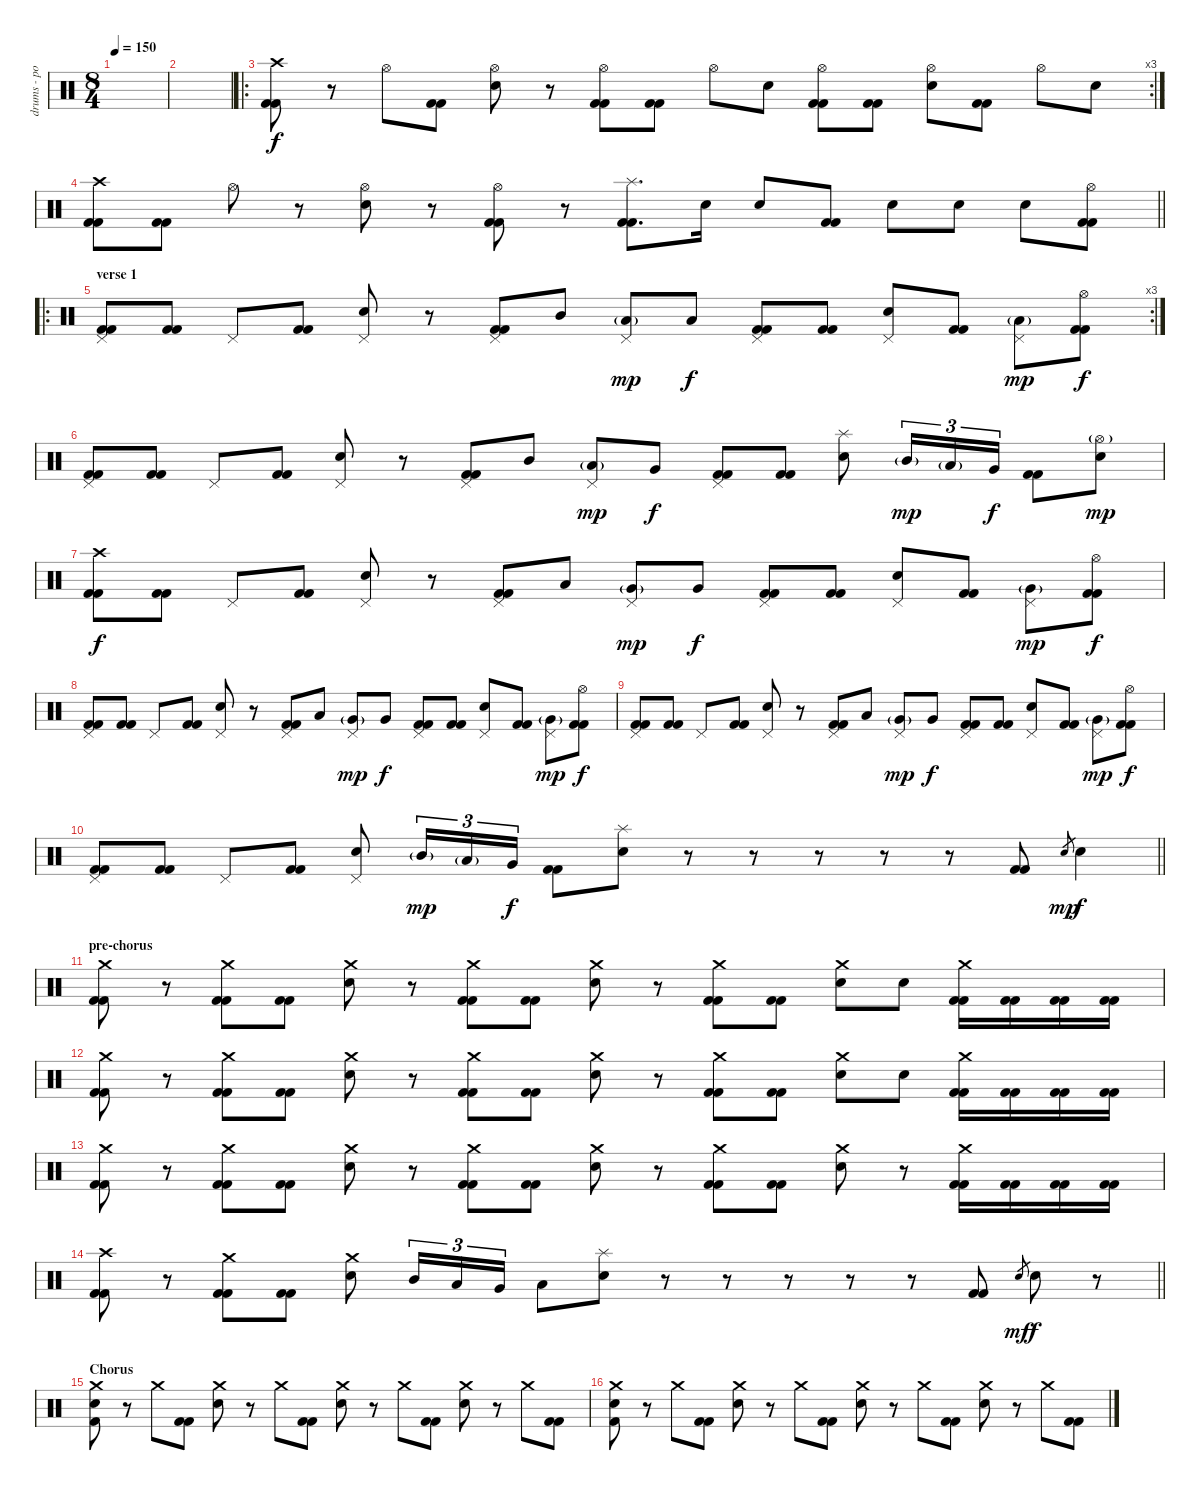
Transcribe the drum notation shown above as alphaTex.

\track ("drums - portnoy" "drums - po") {instrument percussion}
\staff {score}
\articulation defaults
\ts (8 4)
\tempo 150
\clef neutral
\ks c
|
|
\ro
\rc 3
("Crash high (hit)" "Kick (hit) 2" "Kick (hit) 2").8 r.8 "Hi-Hat (open)".8 ("Kick (hit) 2" "Kick (hit) 2").8 ("Hi-Hat (open)" "Electric Snare (hit)").8 r.8 ("Hi-Hat (open)" "Kick (hit) 2" "Kick (hit) 2").8 ("Kick (hit) 2" "Kick (hit) 2").8 "Hi-Hat (open)".8 "Electric Snare (hit)".8 ("Hi-Hat (open)" "Kick (hit) 2" "Kick (hit) 2").8 ("Kick (hit) 2" "Kick (hit) 2").8 ("Hi-Hat (open)" "Electric Snare (hit)").8 ("Kick (hit) 2" "Kick (hit) 2").8 "Hi-Hat (open)".8 "Electric Snare (hit)".8 |
\barLineRight lightlight
("Crash high (hit)" "Kick (hit) 2" "Kick (hit) 2").8 ("Kick (hit) 2" "Kick (hit) 2").8 "Hi-Hat (open)".8 r.8 ("Hi-Hat (open)" "Electric Snare (hit)").8 r.8 ("Hi-Hat (open)" "Kick (hit) 2" "Kick (hit) 2").8 r.8 ("Splash (hit)" "Kick (hit) 2" "Kick (hit) 2").8{d} "Electric Snare (hit)".16 "Electric Snare (hit)".8 ("Kick (hit) 2" "Kick (hit) 2").8 "Electric Snare (hit)".8 "Electric Snare (hit)".8 "Electric Snare (hit)".8 ("Hi-Hat (open)" "Kick (hit) 2" "Kick (hit) 2").8 |
\ro
\rc 3
\section ("" "verse 1")
("Pedal Hi-Hat (hit)" "Kick (hit) 2" "Kick (hit) 2").8 ("Kick (hit) 2" "Kick (hit) 2").8 "Pedal Hi-Hat (hit)".8 ("Kick (hit) 2" "Kick (hit) 2").8 ("Pedal Hi-Hat (hit)" "Electric Snare (hit)").8 r.8 ("Pedal Hi-Hat (hit)" "Kick (hit) 2" "Kick (hit) 2").8 "Mid Tom (hit)".8 ("Pedal Hi-Hat (hit)" "Low Tom (hit)"{g}).8{dy mp} "Low Tom (hit)".8{dy f} ("Pedal Hi-Hat (hit)" "Kick (hit) 2" "Kick (hit) 2").8 ("Kick (hit) 2" "Kick (hit) 2").8 ("Pedal Hi-Hat (hit)" "Electric Snare (hit)").8 ("Kick (hit) 2" "Kick (hit) 2").8 ("Pedal Hi-Hat (hit)" "Low Tom (hit)"{g}).8{dy mp} ("Hi-Hat (open)" "Kick (hit) 2" "Kick (hit) 2").8{dy f} |
("Pedal Hi-Hat (hit)" "Kick (hit) 2" "Kick (hit) 2").8 ("Kick (hit) 2" "Kick (hit) 2").8 "Pedal Hi-Hat (hit)".8 ("Kick (hit) 2" "Kick (hit) 2").8 ("Pedal Hi-Hat (hit)" "Electric Snare (hit)").8 r.8 ("Pedal Hi-Hat (hit)" "Kick (hit) 2" "Kick (hit) 2").8 "Mid Tom (hit)".8 ("Pedal Hi-Hat (hit)" "Low Tom (hit)"{g}).8{dy mp} "Very Low Tom (hit)".8{dy f} ("Pedal Hi-Hat (hit)" "Kick (hit) 2" "Kick (hit) 2").8 ("Kick (hit) 2" "Kick (hit) 2").8 ("Splash (hit)" "Electric Snare (hit)").8 "Mid Tom (hit)"{g}.16{tu (3 2) dy mp} "Low Tom (hit)"{g}.16{tu (3 2)} "Very Low Tom (hit)".16{tu (3 2) dy f} ("Kick (hit) 2" "Kick (hit) 2").8 ("Hi-Hat (open)"{g} "Electric Snare (hit)").8{dy mp} |
("Crash high (hit)" "Kick (hit) 2" "Kick (hit) 2").8{dy f} ("Kick (hit) 2" "Kick (hit) 2").8 "Pedal Hi-Hat (hit)".8 ("Kick (hit) 2" "Kick (hit) 2").8 ("Pedal Hi-Hat (hit)" "Electric Snare (hit)").8 r.8 ("Pedal Hi-Hat (hit)" "Kick (hit) 2" "Kick (hit) 2").8 "Low Tom (hit)".8 ("Pedal Hi-Hat (hit)" "Very Low Tom (hit)"{g}).8{dy mp} "Very Low Tom (hit)".8{dy f} ("Pedal Hi-Hat (hit)" "Kick (hit) 2" "Kick (hit) 2").8 ("Kick (hit) 2" "Kick (hit) 2").8 ("Pedal Hi-Hat (hit)" "Electric Snare (hit)").8 ("Kick (hit) 2" "Kick (hit) 2").8 ("Pedal Hi-Hat (hit)" "Very Low Tom (hit)"{g}).8{dy mp} ("Hi-Hat (open)" "Kick (hit) 2" "Kick (hit) 2").8{dy f} |
("Pedal Hi-Hat (hit)" "Kick (hit) 2" "Kick (hit) 2").8 ("Kick (hit) 2" "Kick (hit) 2").8 "Pedal Hi-Hat (hit)".8 ("Kick (hit) 2" "Kick (hit) 2").8 ("Pedal Hi-Hat (hit)" "Electric Snare (hit)").8 r.8 ("Pedal Hi-Hat (hit)" "Kick (hit) 2" "Kick (hit) 2").8 "Low Tom (hit)".8 ("Pedal Hi-Hat (hit)" "Very Low Tom (hit)"{g}).8{dy mp} "Very Low Tom (hit)".8{dy f} ("Pedal Hi-Hat (hit)" "Kick (hit) 2" "Kick (hit) 2").8 ("Kick (hit) 2" "Kick (hit) 2").8 ("Pedal Hi-Hat (hit)" "Electric Snare (hit)").8 ("Kick (hit) 2" "Kick (hit) 2").8 ("Pedal Hi-Hat (hit)" "Very Low Tom (hit)"{g}).8{dy mp} ("Hi-Hat (open)" "Kick (hit) 2" "Kick (hit) 2").8{dy f} |
("Pedal Hi-Hat (hit)" "Kick (hit) 2" "Kick (hit) 2").8 ("Kick (hit) 2" "Kick (hit) 2").8 "Pedal Hi-Hat (hit)".8 ("Kick (hit) 2" "Kick (hit) 2").8 ("Pedal Hi-Hat (hit)" "Electric Snare (hit)").8 r.8 ("Pedal Hi-Hat (hit)" "Kick (hit) 2" "Kick (hit) 2").8 "Low Tom (hit)".8 ("Pedal Hi-Hat (hit)" "Very Low Tom (hit)"{g}).8{dy mp} "Very Low Tom (hit)".8{dy f} ("Pedal Hi-Hat (hit)" "Kick (hit) 2" "Kick (hit) 2").8 ("Kick (hit) 2" "Kick (hit) 2").8 ("Pedal Hi-Hat (hit)" "Electric Snare (hit)").8 ("Kick (hit) 2" "Kick (hit) 2").8 ("Pedal Hi-Hat (hit)" "Very Low Tom (hit)"{g}).8{dy mp} ("Hi-Hat (open)" "Kick (hit) 2" "Kick (hit) 2").8{dy f} |
\barLineRight lightlight
("Pedal Hi-Hat (hit)" "Kick (hit) 2" "Kick (hit) 2").8 ("Kick (hit) 2" "Kick (hit) 2").8 "Pedal Hi-Hat (hit)".8 ("Kick (hit) 2" "Kick (hit) 2").8 ("Pedal Hi-Hat (hit)" "Electric Snare (hit)").8 "Mid Tom (hit)"{g}.16{tu (3 2) dy mp} "Low Tom (hit)"{g}.16{tu (3 2)} "Very Low Tom (hit)".16{tu (3 2) dy f} ("Kick (hit) 2" "Kick (hit) 2").8 ("Splash (hit)" "Electric Snare (hit)").8 r.8 r.8 r.8 r.8 r.8 ("Kick (hit) 2" "Kick (hit) 2").8 "Electric Snare (hit)".8{gr dy mp} "Electric Snare (hit)".4{dy f} |
\section ("" "pre-chorus")
("Crash medium (hit)" "Kick (hit) 2" "Kick (hit) 2").8 r.8 ("Crash medium (hit)" "Kick (hit) 2" "Kick (hit) 2").8 ("Kick (hit) 2" "Kick (hit) 2").8 ("Crash medium (hit)" "Electric Snare (hit)").8 r.8 ("Crash medium (hit)" "Kick (hit) 2" "Kick (hit) 2").8 ("Kick (hit) 2" "Kick (hit) 2").8 ("Crash medium (hit)" "Electric Snare (hit)").8 r.8 ("Crash medium (hit)" "Kick (hit) 2" "Kick (hit) 2").8 ("Kick (hit) 2" "Kick (hit) 2").8 ("Crash medium (hit)" "Electric Snare (hit)").8 "Electric Snare (hit)".8 ("Crash medium (hit)" "Kick (hit) 2" "Kick (hit) 2").16 ("Kick (hit) 2" "Kick (hit) 2").16 ("Kick (hit) 2" "Kick (hit) 2").16 ("Kick (hit) 2" "Kick (hit) 2").16 |
("Crash medium (hit)" "Kick (hit) 2" "Kick (hit) 2").8 r.8 ("Crash medium (hit)" "Kick (hit) 2" "Kick (hit) 2").8 ("Kick (hit) 2" "Kick (hit) 2").8 ("Crash medium (hit)" "Electric Snare (hit)").8 r.8 ("Crash medium (hit)" "Kick (hit) 2" "Kick (hit) 2").8 ("Kick (hit) 2" "Kick (hit) 2").8 ("Crash medium (hit)" "Electric Snare (hit)").8 r.8 ("Crash medium (hit)" "Kick (hit) 2" "Kick (hit) 2").8 ("Kick (hit) 2" "Kick (hit) 2").8 ("Crash medium (hit)" "Electric Snare (hit)").8 "Electric Snare (hit)".8 ("Crash medium (hit)" "Kick (hit) 2" "Kick (hit) 2").16 ("Kick (hit) 2" "Kick (hit) 2").16 ("Kick (hit) 2" "Kick (hit) 2").16 ("Kick (hit) 2" "Kick (hit) 2").16 |
("Crash medium (hit)" "Kick (hit) 2" "Kick (hit) 2").8 r.8 ("Crash medium (hit)" "Kick (hit) 2" "Kick (hit) 2").8 ("Kick (hit) 2" "Kick (hit) 2").8 ("Crash medium (hit)" "Electric Snare (hit)").8 r.8 ("Crash medium (hit)" "Kick (hit) 2" "Kick (hit) 2").8 ("Kick (hit) 2" "Kick (hit) 2").8 ("Crash medium (hit)" "Electric Snare (hit)").8 r.8 ("Crash medium (hit)" "Kick (hit) 2" "Kick (hit) 2").8 ("Kick (hit) 2" "Kick (hit) 2").8 ("Crash medium (hit)" "Electric Snare (hit)").8 r.8 ("Crash medium (hit)" "Kick (hit) 2" "Kick (hit) 2").16 ("Kick (hit) 2" "Kick (hit) 2").16 ("Kick (hit) 2" "Kick (hit) 2").16 ("Kick (hit) 2" "Kick (hit) 2").16 |
\barLineRight lightlight
("Crash high (hit)" "Kick (hit) 2" "Kick (hit) 2").8 r.8 ("Crash medium (hit)" "Kick (hit) 2" "Kick (hit) 2").8 ("Kick (hit) 2" "Kick (hit) 2").8 ("Crash medium (hit)" "Electric Snare (hit)").8 "Mid Tom (hit)".16{tu (3 2)} "Low Tom (hit)".16{tu (3 2)} "Very Low Tom (hit)".16{tu (3 2)} "Low Floor Tom (hit)".8 ("Splash (hit)" "Electric Snare (hit)").8 r.8 r.8 r.8 r.8 r.8 ("Kick (hit) 2" "Kick (hit) 2").8 "Electric Snare (hit)".8{gr dy mf} "Electric Snare (hit)".8{dy f} r.8 |
\section ("" "Chorus")
("Crash medium (hit)" "Electric Snare (hit)" "Kick (hit) 2").8 r.8 "Crash medium (hit)".8 ("Kick (hit) 2" "Kick (hit) 2").8 ("Crash medium (hit)" "Electric Snare (hit)").8 r.8 "Crash medium (hit)".8 ("Kick (hit) 2" "Kick (hit) 2").8 ("Crash medium (hit)" "Electric Snare (hit)").8 r.8 "Crash medium (hit)".8 ("Kick (hit) 2" "Kick (hit) 2").8 ("Crash medium (hit)" "Electric Snare (hit)").8 r.8 "Crash medium (hit)".8 ("Kick (hit) 2" "Kick (hit) 2").8 |
("Crash medium (hit)" "Electric Snare (hit)" "Kick (hit) 2").8 r.8 "Crash medium (hit)".8 ("Kick (hit) 2" "Kick (hit) 2").8 ("Crash medium (hit)" "Electric Snare (hit)").8 r.8 "Crash medium (hit)".8 ("Kick (hit) 2" "Kick (hit) 2").8 ("Crash medium (hit)" "Electric Snare (hit)").8 r.8 "Crash medium (hit)".8 ("Kick (hit) 2" "Kick (hit) 2").8 ("Crash medium (hit)" "Electric Snare (hit)").8 r.8 "Crash medium (hit)".8 ("Kick (hit) 2" "Kick (hit) 2").8
